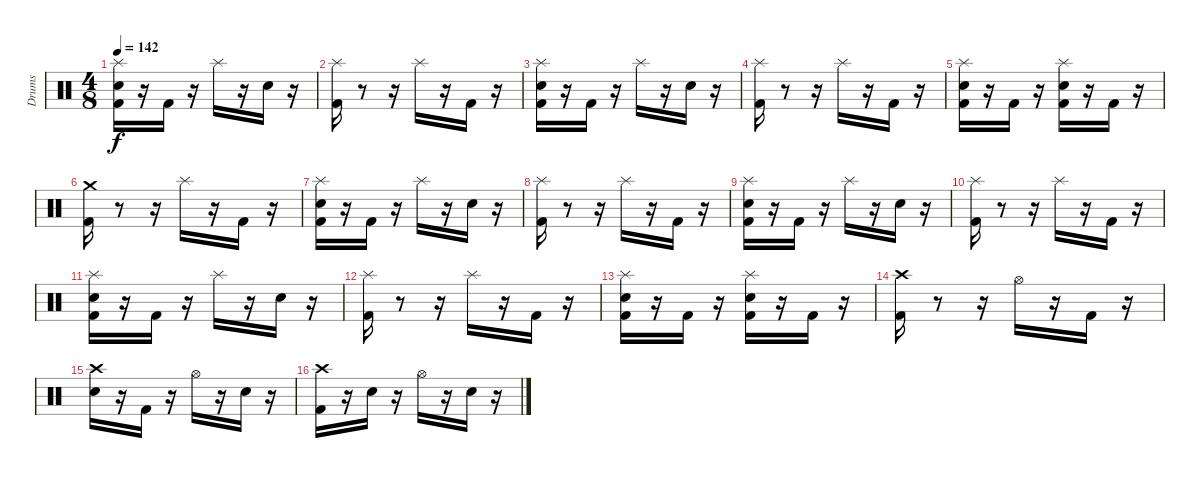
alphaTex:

\track ("Drums" "Drums") {instrument percussion}
\staff {score}
\articulation defaults
\ts (4 8)
\tempo 142
\clef neutral
\ks c
("Electric Snare (hit)" "Kick (hit) 2" "Splash (hit)").16{dy f} r.16 "Kick (hit) 2".16 r.16 "Splash (hit)".16 r.16 "Electric Snare (hit)".16 r.16 |
("Kick (hit) 2" "Splash (hit)").16 r.8 r.16 "Splash (hit)".16 r.16 "Kick (hit) 2".16 r.16 |
("Electric Snare (hit)" "Kick (hit) 2" "Splash (hit)").16 r.16 "Kick (hit) 2".16 r.16 "Splash (hit)".16 r.16 "Electric Snare (hit)".16 r.16 |
("Kick (hit) 2" "Splash (hit)").16 r.8 r.16 "Splash (hit)".16 r.16 "Kick (hit) 2".16 r.16 |
("Electric Snare (hit)" "Kick (hit) 2" "Splash (hit)").16 r.16 "Kick (hit) 2".16 r.16 ("Splash (hit)" "Electric Snare (hit)" "Kick (hit) 2").16 r.16 "Kick (hit) 2".16 r.16 |
("Kick (hit) 2" "Crash medium (hit)").16 r.8 r.16 "Splash (hit)".16 r.16 "Kick (hit) 2".16 r.16 |
("Electric Snare (hit)" "Kick (hit) 2" "Splash (hit)").16 r.16 "Kick (hit) 2".16 r.16 "Splash (hit)".16 r.16 "Electric Snare (hit)".16 r.16 |
("Kick (hit) 2" "Splash (hit)").16 r.8 r.16 "Splash (hit)".16 r.16 "Kick (hit) 2".16 r.16 |
("Electric Snare (hit)" "Kick (hit) 2" "Splash (hit)").16 r.16 "Kick (hit) 2".16 r.16 "Splash (hit)".16 r.16 "Electric Snare (hit)".16 r.16 |
("Kick (hit) 2" "Splash (hit)").16 r.8 r.16 "Splash (hit)".16 r.16 "Kick (hit) 2".16 r.16 |
("Electric Snare (hit)" "Kick (hit) 2" "Splash (hit)").16 r.16 "Kick (hit) 2".16 r.16 "Splash (hit)".16 r.16 "Electric Snare (hit)".16 r.16 |
("Kick (hit) 2" "Splash (hit)").16 r.8 r.16 "Splash (hit)".16 r.16 "Kick (hit) 2".16 r.16 |
("Electric Snare (hit)" "Kick (hit) 2" "Splash (hit)").16 r.16 "Kick (hit) 2".16 r.16 ("Splash (hit)" "Electric Snare (hit)" "Kick (hit) 2").16 r.16 "Kick (hit) 2".16 r.16 |
("Crash high (hit)" "Kick (hit) 2").16 r.8 r.16 "Hi-Hat (open)".16 r.16 "Kick (hit) 2".16 r.16 |
("Crash high (hit)" "Electric Snare (hit)").16 r.16 "Kick (hit) 2".16 r.16 "Hi-Hat (open)".16 r.16 "Electric Snare (hit)".16 r.16 |
("Kick (hit) 2" "Crash high (hit)").16 r.16 "Electric Snare (hit)".16 r.16 "Hi-Hat (open)".16 r.16 "Electric Snare (hit)".16 r.16
